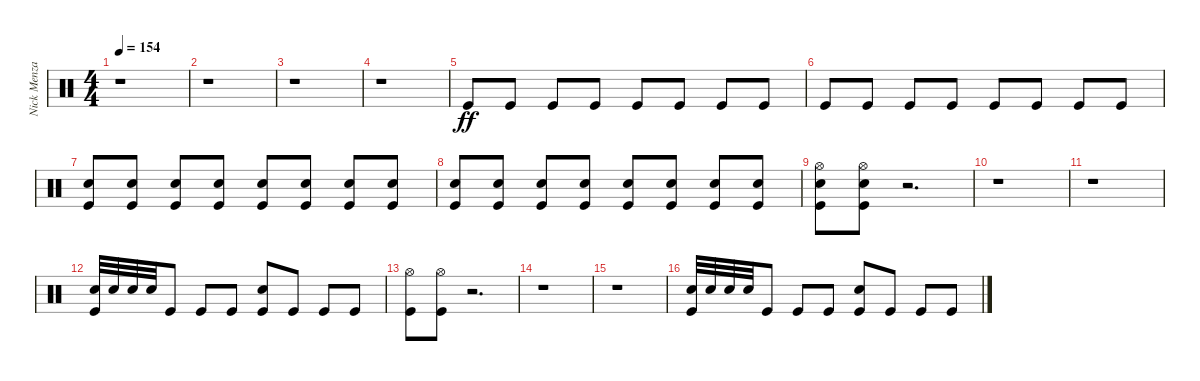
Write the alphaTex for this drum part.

\track ("Nick Menza" "Nick Menza") {instrument percussion}
\staff {score}
\articulation defaults
\ts (4 4)
\tempo 154
\clef neutral
\ks c
r.1{dy ff} |
r.1 |
r.1 |
r.1 |
"Kick (hit)".8 "Kick (hit)".8 "Kick (hit)".8 "Kick (hit)".8 "Kick (hit)".8 "Kick (hit)".8 "Kick (hit)".8 "Kick (hit)".8 |
"Kick (hit)".8 "Kick (hit)".8 "Kick (hit)".8 "Kick (hit)".8 "Kick (hit)".8 "Kick (hit)".8 "Kick (hit)".8 "Kick (hit)".8 |
("Kick (hit)" "Electric Snare (hit)").8 ("Electric Snare (hit)" "Kick (hit)").8 ("Kick (hit)" "Electric Snare (hit)").8 ("Electric Snare (hit)" "Kick (hit)").8 ("Kick (hit)" "Electric Snare (hit)").8 ("Kick (hit)" "Electric Snare (hit)").8 ("Kick (hit)" "Electric Snare (hit)").8 ("Kick (hit)" "Electric Snare (hit)").8 |
("Kick (hit)" "Electric Snare (hit)").8 ("Kick (hit)" "Electric Snare (hit)").8 ("Kick (hit)" "Electric Snare (hit)").8 ("Kick (hit)" "Electric Snare (hit)").8 ("Kick (hit)" "Electric Snare (hit)").8 ("Kick (hit)" "Electric Snare (hit)").8 ("Kick (hit)" "Electric Snare (hit)").8 ("Kick (hit)" "Electric Snare (hit)").8 |
("Kick (hit)" "Electric Snare (hit)" "Hi-Hat (open)").8 ("Kick (hit)" "Electric Snare (hit)" "Hi-Hat (open)").8 r.2{d} |
r.1 |
r.1 |
("Kick (hit)" "Electric Snare (hit)").32 "Electric Snare (hit)".32 "Electric Snare (hit)".32 "Electric Snare (hit)".32 "Kick (hit)".8 "Kick (hit)".8 "Kick (hit)".8 ("Kick (hit)" "Electric Snare (hit)").8 "Kick (hit)".8 "Kick (hit)".8 "Kick (hit)".8 |
("Hi-Hat (open)" "Kick (hit)").8 ("Hi-Hat (open)" "Kick (hit)").8 r.2{d} |
r.1 |
r.1 |
("Kick (hit)" "Electric Snare (hit)").32 "Electric Snare (hit)".32 "Electric Snare (hit)".32 "Electric Snare (hit)".32 "Kick (hit)".8 "Kick (hit)".8 "Kick (hit)".8 ("Kick (hit)" "Electric Snare (hit)").8 "Kick (hit)".8 "Kick (hit)".8 "Kick (hit)".8
